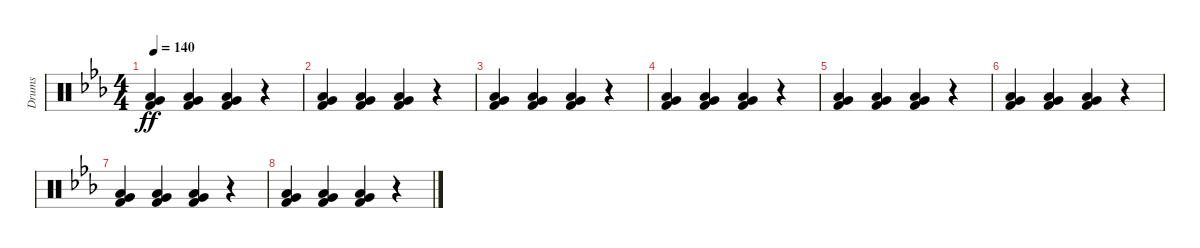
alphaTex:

\track ("Drums" "Drums") {instrument percussion}
\staff {score}
\articulation defaults
\ts (4 4)
\tempo 140
\clef neutral
\ks cminor
("Kick (hit) 2" "Very Low Tom (hit)" "Low Tom (hit)").4{dy ff} ("Kick (hit) 2" "Very Low Tom (hit)" "Low Tom (hit)").4 ("Kick (hit) 2" "Very Low Tom (hit)" "Low Tom (hit)").4 r.4 |
("Kick (hit) 2" "Very Low Tom (hit)" "Low Tom (hit)").4 ("Kick (hit) 2" "Very Low Tom (hit)" "Low Tom (hit)").4 ("Kick (hit) 2" "Very Low Tom (hit)" "Low Tom (hit)").4 r.4 |
("Kick (hit) 2" "Very Low Tom (hit)" "Low Tom (hit)").4 ("Kick (hit) 2" "Very Low Tom (hit)" "Low Tom (hit)").4 ("Kick (hit) 2" "Very Low Tom (hit)" "Low Tom (hit)").4 r.4 |
("Kick (hit) 2" "Very Low Tom (hit)" "Low Tom (hit)").4 ("Kick (hit) 2" "Very Low Tom (hit)" "Low Tom (hit)").4 ("Kick (hit) 2" "Very Low Tom (hit)" "Low Tom (hit)").4 r.4 |
("Kick (hit) 2" "Very Low Tom (hit)" "Low Tom (hit)").4 ("Kick (hit) 2" "Very Low Tom (hit)" "Low Tom (hit)").4 ("Kick (hit) 2" "Very Low Tom (hit)" "Low Tom (hit)").4 r.4 |
("Kick (hit) 2" "Very Low Tom (hit)" "Low Tom (hit)").4 ("Kick (hit) 2" "Very Low Tom (hit)" "Low Tom (hit)").4 ("Kick (hit) 2" "Very Low Tom (hit)" "Low Tom (hit)").4 r.4 |
("Kick (hit) 2" "Very Low Tom (hit)" "Low Tom (hit)").4 ("Kick (hit) 2" "Very Low Tom (hit)" "Low Tom (hit)").4 ("Kick (hit) 2" "Very Low Tom (hit)" "Low Tom (hit)").4 r.4 |
("Kick (hit) 2" "Very Low Tom (hit)" "Low Tom (hit)").4 ("Kick (hit) 2" "Very Low Tom (hit)" "Low Tom (hit)").4 ("Kick (hit) 2" "Very Low Tom (hit)" "Low Tom (hit)").4 r.4
